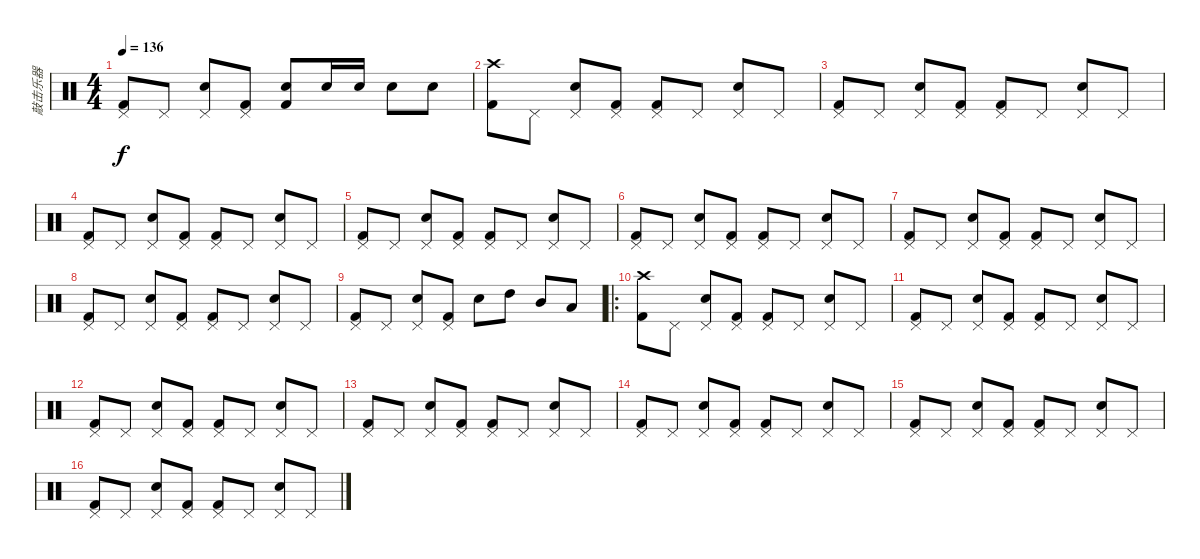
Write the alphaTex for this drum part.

\track ("敲击乐器" "敲击乐器") {instrument percussion}
\staff {score}
\articulation defaults
\ts (4 4)
\tempo 136
\clef neutral
\ks c
("Pedal Hi-Hat (hit)" "Kick (hit) 2").8{dy f} "Pedal Hi-Hat (hit)".8 ("Pedal Hi-Hat (hit)" "Snare (hit) 2").8 ("Pedal Hi-Hat (hit)" "Kick (hit) 2").8 ("Snare (hit) 2" "Kick (hit) 2").8 "Snare (hit) 2".16 "Snare (hit) 2".16 "Snare (hit) 2".8 "Snare (hit) 2".8 |
("Crash high (hit)" "Kick (hit) 2").8 "Pedal Hi-Hat (hit)".8 ("Pedal Hi-Hat (hit)" "Snare (hit) 2").8 ("Pedal Hi-Hat (hit)" "Kick (hit) 2").8 ("Pedal Hi-Hat (hit)" "Kick (hit) 2").8 "Pedal Hi-Hat (hit)".8 ("Pedal Hi-Hat (hit)" "Snare (hit) 2").8 "Pedal Hi-Hat (hit)".8 |
("Pedal Hi-Hat (hit)" "Kick (hit) 2").8 "Pedal Hi-Hat (hit)".8 ("Pedal Hi-Hat (hit)" "Snare (hit) 2").8 ("Pedal Hi-Hat (hit)" "Kick (hit) 2").8 ("Pedal Hi-Hat (hit)" "Kick (hit) 2").8 "Pedal Hi-Hat (hit)".8 ("Pedal Hi-Hat (hit)" "Snare (hit) 2").8 "Pedal Hi-Hat (hit)".8 |
("Pedal Hi-Hat (hit)" "Kick (hit) 2").8 "Pedal Hi-Hat (hit)".8 ("Pedal Hi-Hat (hit)" "Snare (hit) 2").8 ("Pedal Hi-Hat (hit)" "Kick (hit) 2").8 ("Pedal Hi-Hat (hit)" "Kick (hit) 2").8 "Pedal Hi-Hat (hit)".8 ("Pedal Hi-Hat (hit)" "Snare (hit) 2").8 "Pedal Hi-Hat (hit)".8 |
("Pedal Hi-Hat (hit)" "Kick (hit) 2").8 "Pedal Hi-Hat (hit)".8 ("Pedal Hi-Hat (hit)" "Snare (hit) 2").8 ("Pedal Hi-Hat (hit)" "Kick (hit) 2").8 ("Pedal Hi-Hat (hit)" "Kick (hit) 2").8 "Pedal Hi-Hat (hit)".8 ("Pedal Hi-Hat (hit)" "Snare (hit) 2").8 "Pedal Hi-Hat (hit)".8 |
("Pedal Hi-Hat (hit)" "Kick (hit) 2").8 "Pedal Hi-Hat (hit)".8 ("Pedal Hi-Hat (hit)" "Snare (hit) 2").8 ("Pedal Hi-Hat (hit)" "Kick (hit) 2").8 ("Pedal Hi-Hat (hit)" "Kick (hit) 2").8 "Pedal Hi-Hat (hit)".8 ("Pedal Hi-Hat (hit)" "Snare (hit) 2").8 "Pedal Hi-Hat (hit)".8 |
("Pedal Hi-Hat (hit)" "Kick (hit) 2").8 "Pedal Hi-Hat (hit)".8 ("Pedal Hi-Hat (hit)" "Snare (hit) 2").8 ("Pedal Hi-Hat (hit)" "Kick (hit) 2").8 ("Pedal Hi-Hat (hit)" "Kick (hit) 2").8 "Pedal Hi-Hat (hit)".8 ("Pedal Hi-Hat (hit)" "Snare (hit) 2").8 "Pedal Hi-Hat (hit)".8 |
("Pedal Hi-Hat (hit)" "Kick (hit) 2").8 "Pedal Hi-Hat (hit)".8 ("Pedal Hi-Hat (hit)" "Snare (hit) 2").8 ("Pedal Hi-Hat (hit)" "Kick (hit) 2").8 ("Pedal Hi-Hat (hit)" "Kick (hit) 2").8 "Pedal Hi-Hat (hit)".8 ("Pedal Hi-Hat (hit)" "Snare (hit) 2").8 "Pedal Hi-Hat (hit)".8 |
("Pedal Hi-Hat (hit)" "Kick (hit) 2").8 "Pedal Hi-Hat (hit)".8 ("Pedal Hi-Hat (hit)" "Snare (hit) 2").8 ("Pedal Hi-Hat (hit)" "Kick (hit) 2").8 "Snare (hit) 2".8 "High Tom (hit)".8 "Mid Tom (hit)".8 "Low Tom (hit)".8 |
\ro
("Crash high (hit)" "Kick (hit) 2").8 "Pedal Hi-Hat (hit)".8 ("Pedal Hi-Hat (hit)" "Snare (hit) 2").8 ("Pedal Hi-Hat (hit)" "Kick (hit) 2").8 ("Pedal Hi-Hat (hit)" "Kick (hit) 2").8 "Pedal Hi-Hat (hit)".8 ("Pedal Hi-Hat (hit)" "Snare (hit) 2").8 "Pedal Hi-Hat (hit)".8 |
("Pedal Hi-Hat (hit)" "Kick (hit) 2").8 "Pedal Hi-Hat (hit)".8 ("Pedal Hi-Hat (hit)" "Metronome (bell)").8 ("Pedal Hi-Hat (hit)" "Kick (hit) 2").8 ("Pedal Hi-Hat (hit)" "Kick (hit) 2").8 "Pedal Hi-Hat (hit)".8 ("Pedal Hi-Hat (hit)" "Metronome (bell)").8 "Pedal Hi-Hat (hit)".8 |
("Pedal Hi-Hat (hit)" "Kick (hit) 2").8 "Pedal Hi-Hat (hit)".8 ("Pedal Hi-Hat (hit)" "Metronome (bell)").8 ("Pedal Hi-Hat (hit)" "Kick (hit) 2").8 ("Pedal Hi-Hat (hit)" "Kick (hit) 2").8 "Pedal Hi-Hat (hit)".8 ("Pedal Hi-Hat (hit)" "Metronome (bell)").8 "Pedal Hi-Hat (hit)".8 |
("Pedal Hi-Hat (hit)" "Kick (hit) 2").8 "Pedal Hi-Hat (hit)".8 ("Pedal Hi-Hat (hit)" "Metronome (bell)").8 ("Pedal Hi-Hat (hit)" "Kick (hit) 2").8 ("Pedal Hi-Hat (hit)" "Kick (hit) 2").8 "Pedal Hi-Hat (hit)".8 ("Pedal Hi-Hat (hit)" "Metronome (bell)").8 "Pedal Hi-Hat (hit)".8 |
("Pedal Hi-Hat (hit)" "Kick (hit) 2").8 "Pedal Hi-Hat (hit)".8 ("Pedal Hi-Hat (hit)" "Metronome (bell)").8 ("Pedal Hi-Hat (hit)" "Kick (hit) 2").8 ("Pedal Hi-Hat (hit)" "Kick (hit) 2").8 "Pedal Hi-Hat (hit)".8 ("Pedal Hi-Hat (hit)" "Metronome (bell)").8 "Pedal Hi-Hat (hit)".8 |
("Pedal Hi-Hat (hit)" "Kick (hit) 2").8 "Pedal Hi-Hat (hit)".8 ("Pedal Hi-Hat (hit)" "Metronome (bell)").8 ("Pedal Hi-Hat (hit)" "Kick (hit) 2").8 ("Pedal Hi-Hat (hit)" "Kick (hit) 2").8 "Pedal Hi-Hat (hit)".8 ("Pedal Hi-Hat (hit)" "Metronome (bell)").8 "Pedal Hi-Hat (hit)".8 |
("Pedal Hi-Hat (hit)" "Kick (hit) 2").8 "Pedal Hi-Hat (hit)".8 ("Pedal Hi-Hat (hit)" "Metronome (bell)").8 ("Pedal Hi-Hat (hit)" "Kick (hit) 2").8 ("Pedal Hi-Hat (hit)" "Kick (hit) 2").8 "Pedal Hi-Hat (hit)".8 ("Pedal Hi-Hat (hit)" "Metronome (bell)").8 "Pedal Hi-Hat (hit)".8
